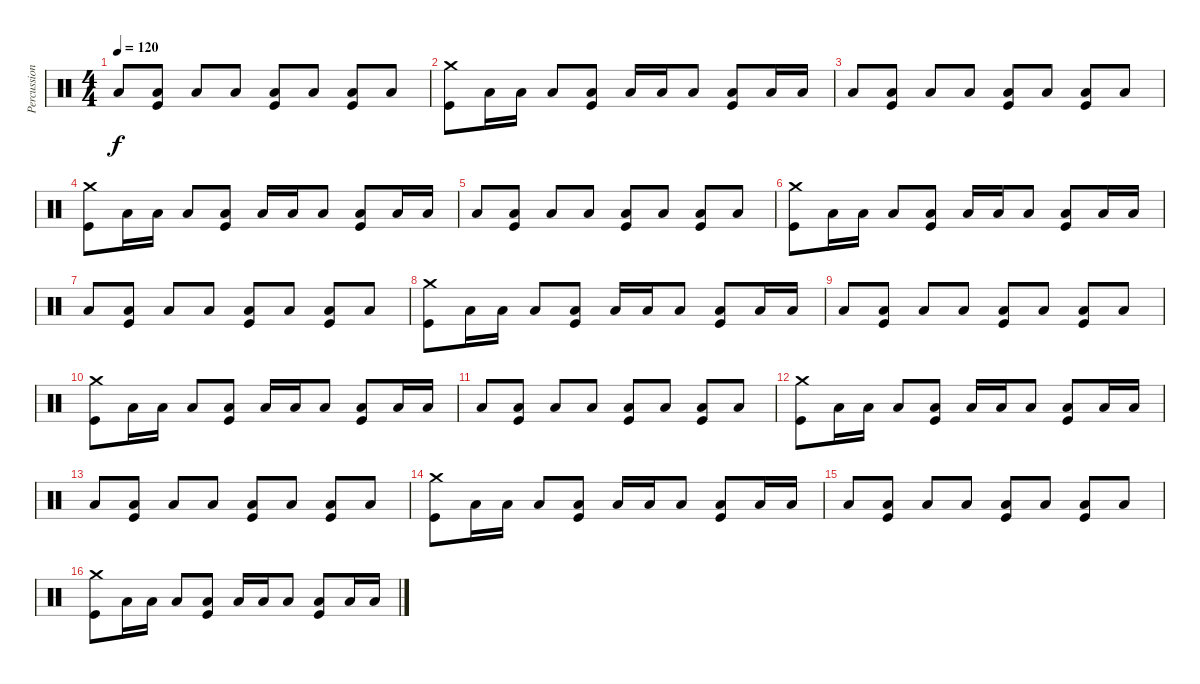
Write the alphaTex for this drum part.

\track ("Percussion" "Percussion") {instrument percussion}
\staff {score}
\articulation defaults
\ts (4 4)
\tempo 120
\clef neutral
\ks c "Low Floor Tom (hit)".8{dy f}
("Low Floor Tom (hit)" "Kick (hit)").8 "Low Floor Tom (hit)".8 "Low Floor Tom (hit)".8 ("Low Floor Tom (hit)" "Kick (hit)").8 "Low Floor Tom (hit)".8 ("Low Floor Tom (hit)" "Kick (hit)").8 "Low Floor Tom (hit)".8 |
("Crash medium (hit)" "Kick (hit)").8 "Low Floor Tom (hit)".16 "Low Floor Tom (hit)".16 "Low Floor Tom (hit)".8 ("Low Floor Tom (hit)" "Kick (hit)").8 "Low Floor Tom (hit)".16 "Low Floor Tom (hit)".16 "Low Floor Tom (hit)".8 ("Low Floor Tom (hit)" "Kick (hit)").8 "Low Floor Tom (hit)".16 "Low Floor Tom (hit)".16 |
"Low Floor Tom (hit)".8 ("Low Floor Tom (hit)" "Kick (hit)").8 "Low Floor Tom (hit)".8 "Low Floor Tom (hit)".8 ("Low Floor Tom (hit)" "Kick (hit)").8 "Low Floor Tom (hit)".8 ("Low Floor Tom (hit)" "Kick (hit)").8 "Low Floor Tom (hit)".8 |
("Crash medium (hit)" "Kick (hit)").8 "Low Floor Tom (hit)".16 "Low Floor Tom (hit)".16 "Low Floor Tom (hit)".8 ("Low Floor Tom (hit)" "Kick (hit)").8 "Low Floor Tom (hit)".16 "Low Floor Tom (hit)".16 "Low Floor Tom (hit)".8 ("Low Floor Tom (hit)" "Kick (hit)").8 "Low Floor Tom (hit)".16 "Low Floor Tom (hit)".16 |
"Low Floor Tom (hit)".8 ("Low Floor Tom (hit)" "Kick (hit)").8 "Low Floor Tom (hit)".8 "Low Floor Tom (hit)".8 ("Low Floor Tom (hit)" "Kick (hit)").8 "Low Floor Tom (hit)".8 ("Low Floor Tom (hit)" "Kick (hit)").8 "Low Floor Tom (hit)".8 |
("Crash medium (hit)" "Kick (hit)").8 "Low Floor Tom (hit)".16 "Low Floor Tom (hit)".16 "Low Floor Tom (hit)".8 ("Low Floor Tom (hit)" "Kick (hit)").8 "Low Floor Tom (hit)".16 "Low Floor Tom (hit)".16 "Low Floor Tom (hit)".8 ("Low Floor Tom (hit)" "Kick (hit)").8 "Low Floor Tom (hit)".16 "Low Floor Tom (hit)".16 |
"Low Floor Tom (hit)".8 ("Low Floor Tom (hit)" "Kick (hit)").8 "Low Floor Tom (hit)".8 "Low Floor Tom (hit)".8 ("Low Floor Tom (hit)" "Kick (hit)").8 "Low Floor Tom (hit)".8 ("Low Floor Tom (hit)" "Kick (hit)").8 "Low Floor Tom (hit)".8 |
("Crash medium (hit)" "Kick (hit)").8 "Low Floor Tom (hit)".16 "Low Floor Tom (hit)".16 "Low Floor Tom (hit)".8 ("Low Floor Tom (hit)" "Kick (hit)").8 "Low Floor Tom (hit)".16 "Low Floor Tom (hit)".16 "Low Floor Tom (hit)".8 ("Low Floor Tom (hit)" "Kick (hit)").8 "Low Floor Tom (hit)".16 "Low Floor Tom (hit)".16 |
"Low Floor Tom (hit)".8 ("Low Floor Tom (hit)" "Kick (hit)").8 "Low Floor Tom (hit)".8 "Low Floor Tom (hit)".8 ("Low Floor Tom (hit)" "Kick (hit)").8 "Low Floor Tom (hit)".8 ("Low Floor Tom (hit)" "Kick (hit)").8 "Low Floor Tom (hit)".8 |
("Crash medium (hit)" "Kick (hit)").8 "Low Floor Tom (hit)".16 "Low Floor Tom (hit)".16 "Low Floor Tom (hit)".8 ("Low Floor Tom (hit)" "Kick (hit)").8 "Low Floor Tom (hit)".16 "Low Floor Tom (hit)".16 "Low Floor Tom (hit)".8 ("Low Floor Tom (hit)" "Kick (hit)").8 "Low Floor Tom (hit)".16 "Low Floor Tom (hit)".16 |
"Low Floor Tom (hit)".8 ("Low Floor Tom (hit)" "Kick (hit)").8 "Low Floor Tom (hit)".8 "Low Floor Tom (hit)".8 ("Low Floor Tom (hit)" "Kick (hit)").8 "Low Floor Tom (hit)".8 ("Low Floor Tom (hit)" "Kick (hit)").8 "Low Floor Tom (hit)".8 |
("Crash medium (hit)" "Kick (hit)").8 "Low Floor Tom (hit)".16 "Low Floor Tom (hit)".16 "Low Floor Tom (hit)".8 ("Low Floor Tom (hit)" "Kick (hit)").8 "Low Floor Tom (hit)".16 "Low Floor Tom (hit)".16 "Low Floor Tom (hit)".8 ("Low Floor Tom (hit)" "Kick (hit)").8 "Low Floor Tom (hit)".16 "Low Floor Tom (hit)".16 |
"Low Floor Tom (hit)".8 ("Low Floor Tom (hit)" "Kick (hit)").8 "Low Floor Tom (hit)".8 "Low Floor Tom (hit)".8 ("Low Floor Tom (hit)" "Kick (hit)").8 "Low Floor Tom (hit)".8 ("Low Floor Tom (hit)" "Kick (hit)").8 "Low Floor Tom (hit)".8 |
("Crash medium (hit)" "Kick (hit)").8 "Low Floor Tom (hit)".16 "Low Floor Tom (hit)".16 "Low Floor Tom (hit)".8 ("Low Floor Tom (hit)" "Kick (hit)").8 "Low Floor Tom (hit)".16 "Low Floor Tom (hit)".16 "Low Floor Tom (hit)".8 ("Low Floor Tom (hit)" "Kick (hit)").8 "Low Floor Tom (hit)".16 "Low Floor Tom (hit)".16 |
"Low Floor Tom (hit)".8 ("Low Floor Tom (hit)" "Kick (hit)").8 "Low Floor Tom (hit)".8 "Low Floor Tom (hit)".8 ("Low Floor Tom (hit)" "Kick (hit)").8 "Low Floor Tom (hit)".8 ("Low Floor Tom (hit)" "Kick (hit)").8 "Low Floor Tom (hit)".8 |
("Crash medium (hit)" "Kick (hit)").8 "Low Floor Tom (hit)".16 "Low Floor Tom (hit)".16 "Low Floor Tom (hit)".8 ("Low Floor Tom (hit)" "Kick (hit)").8 "Low Floor Tom (hit)".16 "Low Floor Tom (hit)".16 "Low Floor Tom (hit)".8 ("Low Floor Tom (hit)" "Kick (hit)").8 "Low Floor Tom (hit)".16 "Low Floor Tom (hit)".16
